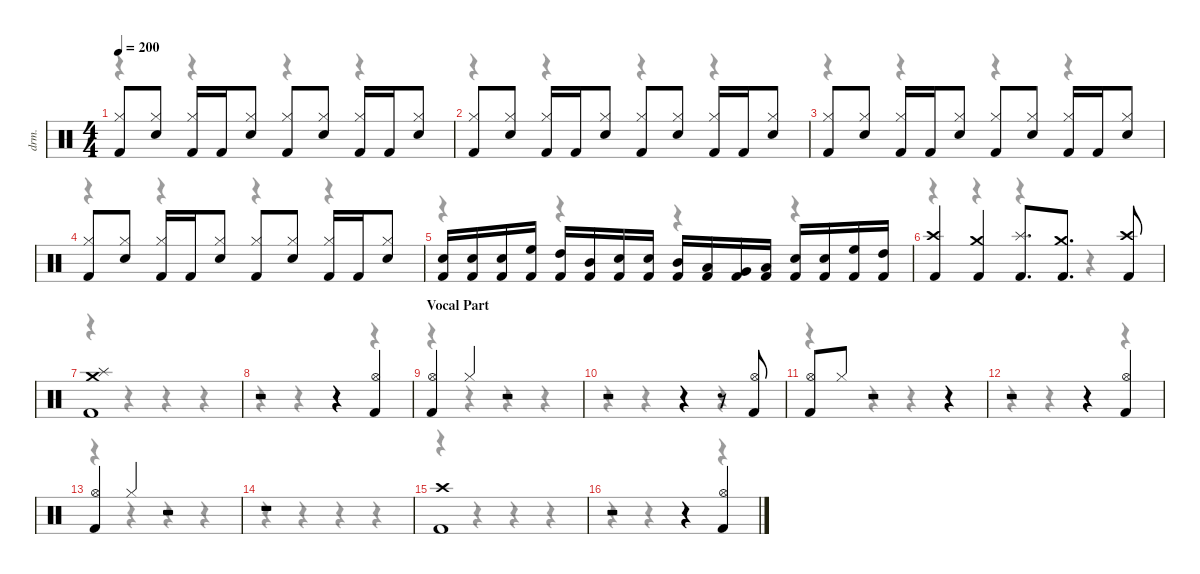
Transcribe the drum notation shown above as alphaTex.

\defaultSystemsLayout 4
\hideDynamics
\bracketExtendMode nobrackets
\otherSystemsTrackNameOrientation horizontal
\track ("David Mackintosh (Drums)" "drm.") {instrument percussion}
\staff {score}
\articulation defaults
\voice
\ts (4 4)
\tempo 200
\clef neutral
\ks c
("Kick (hit) 2" "Hi-Hat (closed)").8{dy f} ("Snare (hit) 2" "Hi-Hat (closed)").8 ("Kick (hit) 2" "Hi-Hat (closed)").16 "Kick (hit) 2".16 ("Snare (hit) 2" "Hi-Hat (closed)").8 ("Kick (hit) 2" "Hi-Hat (closed)").8 ("Snare (hit) 2" "Hi-Hat (closed)").8 ("Kick (hit) 2" "Hi-Hat (closed)").16 "Kick (hit) 2".16 ("Snare (hit) 2" "Hi-Hat (closed)").8 |
("Kick (hit) 2" "Hi-Hat (closed)").8 ("Snare (hit) 2" "Hi-Hat (closed)").8 ("Kick (hit) 2" "Hi-Hat (closed)").16 "Kick (hit) 2".16 ("Snare (hit) 2" "Hi-Hat (closed)").8 ("Kick (hit) 2" "Hi-Hat (closed)").8 ("Snare (hit) 2" "Hi-Hat (closed)").8 ("Kick (hit) 2" "Hi-Hat (closed)").16 "Kick (hit) 2".16 ("Snare (hit) 2" "Hi-Hat (closed)").8 |
("Kick (hit) 2" "Hi-Hat (closed)").8 ("Snare (hit) 2" "Hi-Hat (closed)").8 ("Kick (hit) 2" "Hi-Hat (closed)").16 "Kick (hit) 2".16 ("Snare (hit) 2" "Hi-Hat (closed)").8 ("Kick (hit) 2" "Hi-Hat (closed)").8 ("Snare (hit) 2" "Hi-Hat (closed)").8 ("Kick (hit) 2" "Hi-Hat (closed)").16 "Kick (hit) 2".16 ("Snare (hit) 2" "Hi-Hat (closed)").8 |
("Kick (hit) 2" "Hi-Hat (closed)").8 ("Snare (hit) 2" "Hi-Hat (closed)").8 ("Kick (hit) 2" "Hi-Hat (closed)").16 "Kick (hit) 2".16 ("Snare (hit) 2" "Hi-Hat (closed)").8 ("Kick (hit) 2" "Hi-Hat (closed)").8 ("Snare (hit) 2" "Hi-Hat (closed)").8 ("Kick (hit) 2" "Hi-Hat (closed)").16 "Kick (hit) 2".16 ("Snare (hit) 2" "Hi-Hat (closed)").8 |
("Kick (hit) 2" "Snare (hit) 2").16 ("Kick (hit) 2" "Snare (hit) 2").16 ("Kick (hit) 2" "Snare (hit) 2").16 ("Kick (hit) 2" "High Floor Tom (hit)").16 ("Kick (hit) 2" "High Tom (hit)").16 ("Kick (hit) 2" "Mid Tom (hit)").16 ("Kick (hit) 2" "Snare (hit) 2").16 ("Kick (hit) 2" "Snare (hit) 2").16 ("Kick (hit) 2" "Mid Tom (hit)").16 ("Kick (hit) 2" "Low Tom (hit)").16 ("Kick (hit) 2" "Very Low Tom (hit)").16 ("Kick (hit) 2" "Low Floor Tom (hit)").16 ("Kick (hit) 2" "Snare (hit) 2").16 ("Kick (hit) 2" "Snare (hit) 2").16 ("Kick (hit) 2" "High Floor Tom (hit)").16 ("Kick (hit) 2" "High Tom (hit)").16 |
("Kick (hit) 2" "Crash high (hit)").4 ("Kick (hit) 2" "Crash medium (hit)").4 ("Kick (hit) 2" "Splash (hit)").8{d} ("Kick (hit) 2" "Crash medium (hit)").8{d} ("Kick (hit) 2" "Crash high (hit)").8 |
("Kick (hit) 2" "Splash (hit)" "Crash medium (hit)").1 |
r.2 r.4 ("Kick (hit) 2" "Hi-Hat (open)").4 |
\section ("" "Vocal Part")
("Kick (hit) 2" "Hi-Hat (open)").4 "Hi-Hat (closed)".4{dy ppp} r.2 |
r.2 r.4 r.8 ("Kick (hit) 2" "Hi-Hat (open)").8{dy f} |
("Kick (hit) 2" "Hi-Hat (open)").8 "Hi-Hat (closed)".8{dy ppp} r.2 r.4 |
r.2 r.4 ("Kick (hit) 2" "Hi-Hat (open)").4{dy f} |
("Kick (hit) 2" "Hi-Hat (open)").4 "Hi-Hat (closed)".4{dy ppp} r.2 |
r.1 |
("Kick (hit) 2" "Crash high (hit)").1{dy f} |
r.2 r.4 ("Kick (hit) 2" "Hi-Hat (open)").4
\voice
\clef neutral
\ottava regular
\simile none
\ks c
r.4{dy mf} r.4 r.4 r.4 |
r.4 r.4 r.4 r.4 |
r.4 r.4 r.4 r.4 |
r.4 r.4 r.4 r.4 |
r.4 r.4 r.4 r.4 |
r.4 r.4 r.4 r.4 |
r.4 r.4 r.4 r.4 |
r.4 r.4 r.4 r.4 |
r.4 r.4 r.4 r.4 |
r.4 r.4 r.4 r.4 |
r.4 r.4 r.4 r.4 |
r.4 r.4 r.4 r.4 |
r.4 r.4 r.4 r.4 |
r.4 r.4 r.4 r.4 |
r.4 r.4 r.4 r.4 |
r.4 r.4 r.4 r.4
